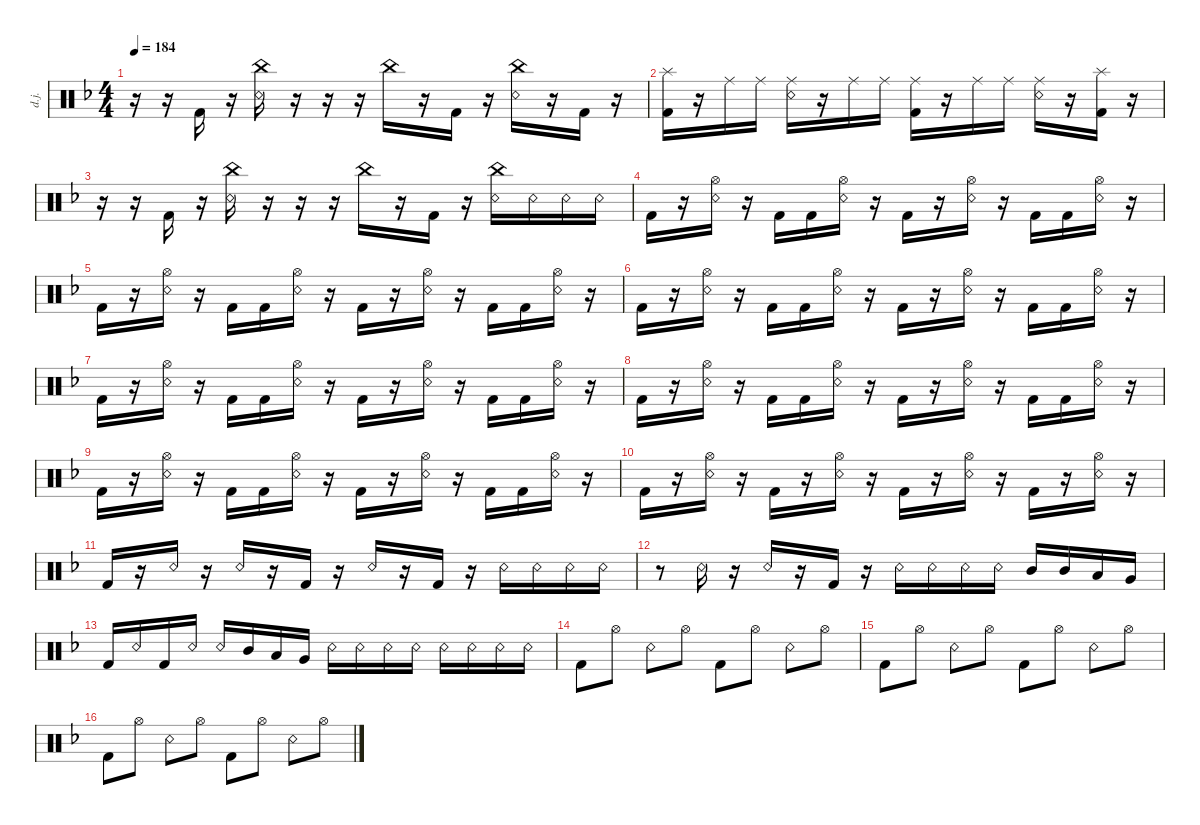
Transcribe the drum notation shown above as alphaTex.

\defaultSystemsLayout 4
\hideDynamics
\bracketExtendMode nobrackets
\otherSystemsTrackNameOrientation horizontal
\track ("Drumkit Jason" "d.j.") {instrument percussion}
\staff {score}
\articulation defaults
\ts (4 4)
\tempo 184
\clef neutral
\ks dminor
r.16{dy ff beam Down} r.16{beam Down} "Kick (hit) 2"{acc forcenatural}.16{beam Up} r.16{beam Up} ("China (hit)"{acc forcenatural} "Snare (rim shot)"{acc forcenatural}).16{beam Down} r.16{beam Down} r.16{beam Down} r.16{beam Down} "China (hit)"{acc forcenatural}.16{beam Down} r.16{beam Down} "Kick (hit) 2"{acc forcenatural}.16{beam Down} r.16{beam Down} ("China (hit)"{acc forcenatural} "Snare (rim shot)"{acc forcenatural}).16{beam Down} r.16{beam Down} "Kick (hit) 2"{acc forcenatural}.16{beam Down} r.16{beam Down} |
("Splash (hit)"{acc forcenatural} "Kick (hit) 2"{acc forcenatural}).16{beam Down} r.16{beam Down} "Ride (middle)"{acc forcenatural}.16{beam Down} "Ride (middle)"{acc forcenatural}.16{beam Down} ("Ride (middle)"{acc forcenatural} "Snare (rim shot)"{acc forcenatural}).16{beam Down} r.16{beam Down} "Ride (middle)"{acc forcenatural}.16{beam Down} "Ride (middle)"{acc forcenatural}.16{beam Down} ("Ride (middle)"{acc forcenatural} "Kick (hit) 2"{acc forcenatural}).16{beam Down} r.16{beam Down} "Ride (middle)"{acc forcenatural}.16{beam Down} "Ride (middle)"{acc forcenatural}.16{beam Down} ("Ride (middle)"{acc forcenatural} "Snare (rim shot)"{acc forcenatural}).16{beam Down} r.16{beam Down} ("Splash (hit)"{acc forcenatural} "Kick (hit) 2"{acc forcenatural}).16{beam Down} r.16{beam Down} |
r.16{beam Down} r.16{beam Down} "Kick (hit) 2"{acc forcenatural}.16{beam Up} r.16{beam Up} ("China (hit)"{acc forcenatural} "Snare (rim shot)"{acc forcenatural}).16{beam Down} r.16{beam Down} r.16{beam Down} r.16{beam Down} "China (hit)"{acc forcenatural}.16{beam Down} r.16{beam Down} "Kick (hit) 2"{acc forcenatural}.16{beam Down} r.16{beam Down} ("Snare (rim shot)"{acc forcenatural} "China (hit)"{acc forcenatural}).16{beam Down} "Snare (rim shot)"{acc forcenatural}.16{beam Down} "Snare (rim shot)"{acc forcenatural}.16{beam Down} "Snare (rim shot)"{acc forcenatural}.16{beam Down} |
"Kick (hit) 2"{acc forcenatural}.16{beam Down} r.16{beam Down} ("Snare (rim shot)"{acc forcenatural} "Hi-Hat (open)"{acc forcenatural}).16{beam Down} r.16{beam Down} "Kick (hit) 2"{acc forcenatural}.16{beam Down} "Kick (hit) 2"{acc forcenatural}.16{beam Down} ("Snare (rim shot)"{acc forcenatural} "Hi-Hat (open)"{acc forcenatural}).16{beam Down} r.16{beam Down} "Kick (hit) 2"{acc forcenatural}.16{beam Down} r.16{beam Down} ("Snare (rim shot)"{acc forcenatural} "Hi-Hat (open)"{acc forcenatural}).16{beam Down} r.16{beam Down} "Kick (hit) 2"{acc forcenatural}.16{beam Down} "Kick (hit) 2"{acc forcenatural}.16{beam Down} ("Snare (rim shot)"{acc forcenatural} "Hi-Hat (open)"{acc forcenatural}).16{beam Down} r.16{beam Down} |
"Kick (hit) 2"{acc forcenatural}.16{beam Down} r.16{beam Down} ("Snare (rim shot)"{acc forcenatural} "Hi-Hat (open)"{acc forcenatural}).16{beam Down} r.16{beam Down} "Kick (hit) 2"{acc forcenatural}.16{beam Down} "Kick (hit) 2"{acc forcenatural}.16{beam Down} ("Snare (rim shot)"{acc forcenatural} "Hi-Hat (open)"{acc forcenatural}).16{beam Down} r.16{beam Down} "Kick (hit) 2"{acc forcenatural}.16{beam Down} r.16{beam Down} ("Snare (rim shot)"{acc forcenatural} "Hi-Hat (open)"{acc forcenatural}).16{beam Down} r.16{beam Down} "Kick (hit) 2"{acc forcenatural}.16{beam Down} "Kick (hit) 2"{acc forcenatural}.16{beam Down} ("Snare (rim shot)"{acc forcenatural} "Hi-Hat (open)"{acc forcenatural}).16{beam Down} r.16{beam Down} |
"Kick (hit) 2"{acc forcenatural}.16{beam Down} r.16{beam Down} ("Snare (rim shot)"{acc forcenatural} "Hi-Hat (open)"{acc forcenatural}).16{beam Down} r.16{beam Down} "Kick (hit) 2"{acc forcenatural}.16{beam Down} "Kick (hit) 2"{acc forcenatural}.16{beam Down} ("Snare (rim shot)"{acc forcenatural} "Hi-Hat (open)"{acc forcenatural}).16{beam Down} r.16{beam Down} "Kick (hit) 2"{acc forcenatural}.16{beam Down} r.16{beam Down} ("Snare (rim shot)"{acc forcenatural} "Hi-Hat (open)"{acc forcenatural}).16{beam Down} r.16{beam Down} "Kick (hit) 2"{acc forcenatural}.16{beam Down} "Kick (hit) 2"{acc forcenatural}.16{beam Down} ("Snare (rim shot)"{acc forcenatural} "Hi-Hat (open)"{acc forcenatural}).16{beam Down} r.16{beam Down} |
"Kick (hit) 2"{acc forcenatural}.16{beam Down} r.16{beam Down} ("Snare (rim shot)"{acc forcenatural} "Hi-Hat (open)"{acc forcenatural}).16{beam Down} r.16{beam Down} "Kick (hit) 2"{acc forcenatural}.16{beam Down} "Kick (hit) 2"{acc forcenatural}.16{beam Down} ("Snare (rim shot)"{acc forcenatural} "Hi-Hat (open)"{acc forcenatural}).16{beam Down} r.16{beam Down} "Kick (hit) 2"{acc forcenatural}.16{beam Down} r.16{beam Down} ("Snare (rim shot)"{acc forcenatural} "Hi-Hat (open)"{acc forcenatural}).16{beam Down} r.16{beam Down} "Kick (hit) 2"{acc forcenatural}.16{beam Down} "Kick (hit) 2"{acc forcenatural}.16{beam Down} ("Snare (rim shot)"{acc forcenatural} "Hi-Hat (open)"{acc forcenatural}).16{beam Down} r.16{beam Down} |
"Kick (hit) 2"{acc forcenatural}.16{beam Down} r.16{beam Down} ("Snare (rim shot)"{acc forcenatural} "Hi-Hat (open)"{acc forcenatural}).16{beam Down} r.16{beam Down} "Kick (hit) 2"{acc forcenatural}.16{beam Down} "Kick (hit) 2"{acc forcenatural}.16{beam Down} ("Snare (rim shot)"{acc forcenatural} "Hi-Hat (open)"{acc forcenatural}).16{beam Down} r.16{beam Down} "Kick (hit) 2"{acc forcenatural}.16{beam Down} r.16{beam Down} ("Snare (rim shot)"{acc forcenatural} "Hi-Hat (open)"{acc forcenatural}).16{beam Down} r.16{beam Down} "Kick (hit) 2"{acc forcenatural}.16{beam Down} "Kick (hit) 2"{acc forcenatural}.16{beam Down} ("Snare (rim shot)"{acc forcenatural} "Hi-Hat (open)"{acc forcenatural}).16{beam Down} r.16{beam Down} |
"Kick (hit) 2"{acc forcenatural}.16{beam Down} r.16{beam Down} ("Snare (rim shot)"{acc forcenatural} "Hi-Hat (open)"{acc forcenatural}).16{beam Down} r.16{beam Down} "Kick (hit) 2"{acc forcenatural}.16{beam Down} "Kick (hit) 2"{acc forcenatural}.16{beam Down} ("Snare (rim shot)"{acc forcenatural} "Hi-Hat (open)"{acc forcenatural}).16{beam Down} r.16{beam Down} "Kick (hit) 2"{acc forcenatural}.16{beam Down} r.16{beam Down} ("Snare (rim shot)"{acc forcenatural} "Hi-Hat (open)"{acc forcenatural}).16{beam Down} r.16{beam Down} "Kick (hit) 2"{acc forcenatural}.16{beam Down} "Kick (hit) 2"{acc forcenatural}.16{beam Down} ("Snare (rim shot)"{acc forcenatural} "Hi-Hat (open)"{acc forcenatural}).16{beam Down} r.16{beam Down} |
"Kick (hit) 2"{acc forcenatural}.16{beam Down} r.16{beam Down} ("Snare (rim shot)"{acc forcenatural} "Hi-Hat (open)"{acc forcenatural}).16{beam Down} r.16{beam Down} "Kick (hit) 2"{acc forcenatural}.16{beam Down} r.16{beam Down} ("Snare (rim shot)"{acc forcenatural} "Hi-Hat (open)"{acc forcenatural}).16{beam Down} r.16{beam Down} "Kick (hit) 2"{acc forcenatural}.16{beam Down} r.16{beam Down} ("Snare (rim shot)"{acc forcenatural} "Hi-Hat (open)"{acc forcenatural}).16{beam Down} r.16{beam Down} "Kick (hit) 2"{acc forcenatural}.16{beam Down} r.16{beam Down} ("Snare (rim shot)"{acc forcenatural} "Hi-Hat (open)"{acc forcenatural}).16{beam Down} r.16{beam Down} |
"Kick (hit) 2"{acc forcenatural}.16{beam Up} r.16{beam Up} "Snare (rim shot)"{acc forcenatural}.16{beam Up} r.16{beam Up} "Snare (rim shot)"{acc forcenatural}.16{beam Up} r.16{beam Up} "Kick (hit) 2"{acc forcenatural}.16{beam Up} r.16{beam Up} "Snare (rim shot)"{acc forcenatural}.16{beam Up} r.16{beam Up} "Kick (hit) 2"{acc forcenatural}.16{beam Up} r.16{beam Up} "Snare (rim shot)"{acc forcenatural}.16{beam Down} "Snare (rim shot)"{acc forcenatural}.16{beam Down} "Snare (rim shot)"{acc forcenatural}.16{beam Down} "Snare (rim shot)"{acc forcenatural}.16{beam Down} |
r.8{beam Down} "Snare (rim shot)"{acc forcenatural}.16{dy mf beam Down} r.16{beam Down} "Snare (rim shot)"{acc forcenatural}.16{beam Up} r.16{beam Up} "Kick (hit) 2"{acc forcenatural}.16{beam Up} r.16{beam Up} "Snare (rim shot)"{acc forcenatural}.16{beam Down} "Snare (rim shot)"{acc forcenatural}.16{beam Down} "Snare (rim shot)"{acc forcenatural}.16{beam Down} "Snare (rim shot)"{acc forcenatural}.16{beam Down} "Mid Tom (hit)"{acc forcenatural}.16{beam Up} "Mid Tom (hit)"{acc forcenatural}.16{beam Up} "Low Tom (hit)"{acc forcenatural}.16{beam Up} "Very Low Tom (hit)"{acc forcenatural}.16{beam Up} |
"Kick (hit) 2"{acc forcenatural}.16{beam Up} "Snare (rim shot)"{acc forcenatural}.16{beam Up} "Kick (hit) 2"{acc forcenatural}.16{beam Up} "Snare (rim shot)"{acc forcenatural}.16{beam Up} "Snare (rim shot)"{acc forcenatural}.16{beam Up} "Mid Tom (hit)"{acc forcenatural}.16{beam Up} "Low Tom (hit)"{acc forcenatural}.16{beam Up} "Very Low Tom (hit)"{acc forcenatural}.16{beam Up} "Snare (rim shot)"{acc forcenatural}.16{beam Down} "Snare (rim shot)"{acc forcenatural}.16{beam Down} "Snare (rim shot)"{acc forcenatural}.16{beam Down} "Snare (rim shot)"{acc forcenatural}.16{beam Down} "Snare (rim shot)"{acc forcenatural}.16{beam Down} "Snare (rim shot)"{acc forcenatural}.16{beam Down} "Snare (rim shot)"{acc forcenatural}.16{beam Down} "Snare (rim shot)"{acc forcenatural}.16{beam Down} |
"Kick (hit) 2"{acc forcenatural}.8{dy ff beam Down} "Hi-Hat (open)"{acc forcenatural}.8{beam Down} "Snare (rim shot)"{acc forcenatural}.8{beam Down} "Hi-Hat (open)"{acc forcenatural}.8{beam Down} "Kick (hit) 2"{acc forcenatural}.8{beam Down} "Hi-Hat (open)"{acc forcenatural}.8{beam Down} "Snare (rim shot)"{acc forcenatural}.8{beam Down} "Hi-Hat (open)"{acc forcenatural}.8{beam Down} |
"Kick (hit) 2"{acc forcenatural}.8{beam Down} "Hi-Hat (open)"{acc forcenatural}.8{beam Down} "Snare (rim shot)"{acc forcenatural}.8{beam Down} "Hi-Hat (open)"{acc forcenatural}.8{beam Down} "Kick (hit) 2"{acc forcenatural}.8{beam Down} "Hi-Hat (open)"{acc forcenatural}.8{beam Down} "Snare (rim shot)"{acc forcenatural}.8{beam Down} "Hi-Hat (open)"{acc forcenatural}.8{beam Down} |
"Kick (hit) 2"{acc forcenatural}.8{beam Down} "Hi-Hat (open)"{acc forcenatural}.8{beam Down} "Snare (rim shot)"{acc forcenatural}.8{beam Down} "Hi-Hat (open)"{acc forcenatural}.8{beam Down} "Kick (hit) 2"{acc forcenatural}.8{beam Down} "Hi-Hat (open)"{acc forcenatural}.8{beam Down} "Snare (rim shot)"{acc forcenatural}.8{beam Down} "Hi-Hat (open)"{acc forcenatural}.8{beam Down}
